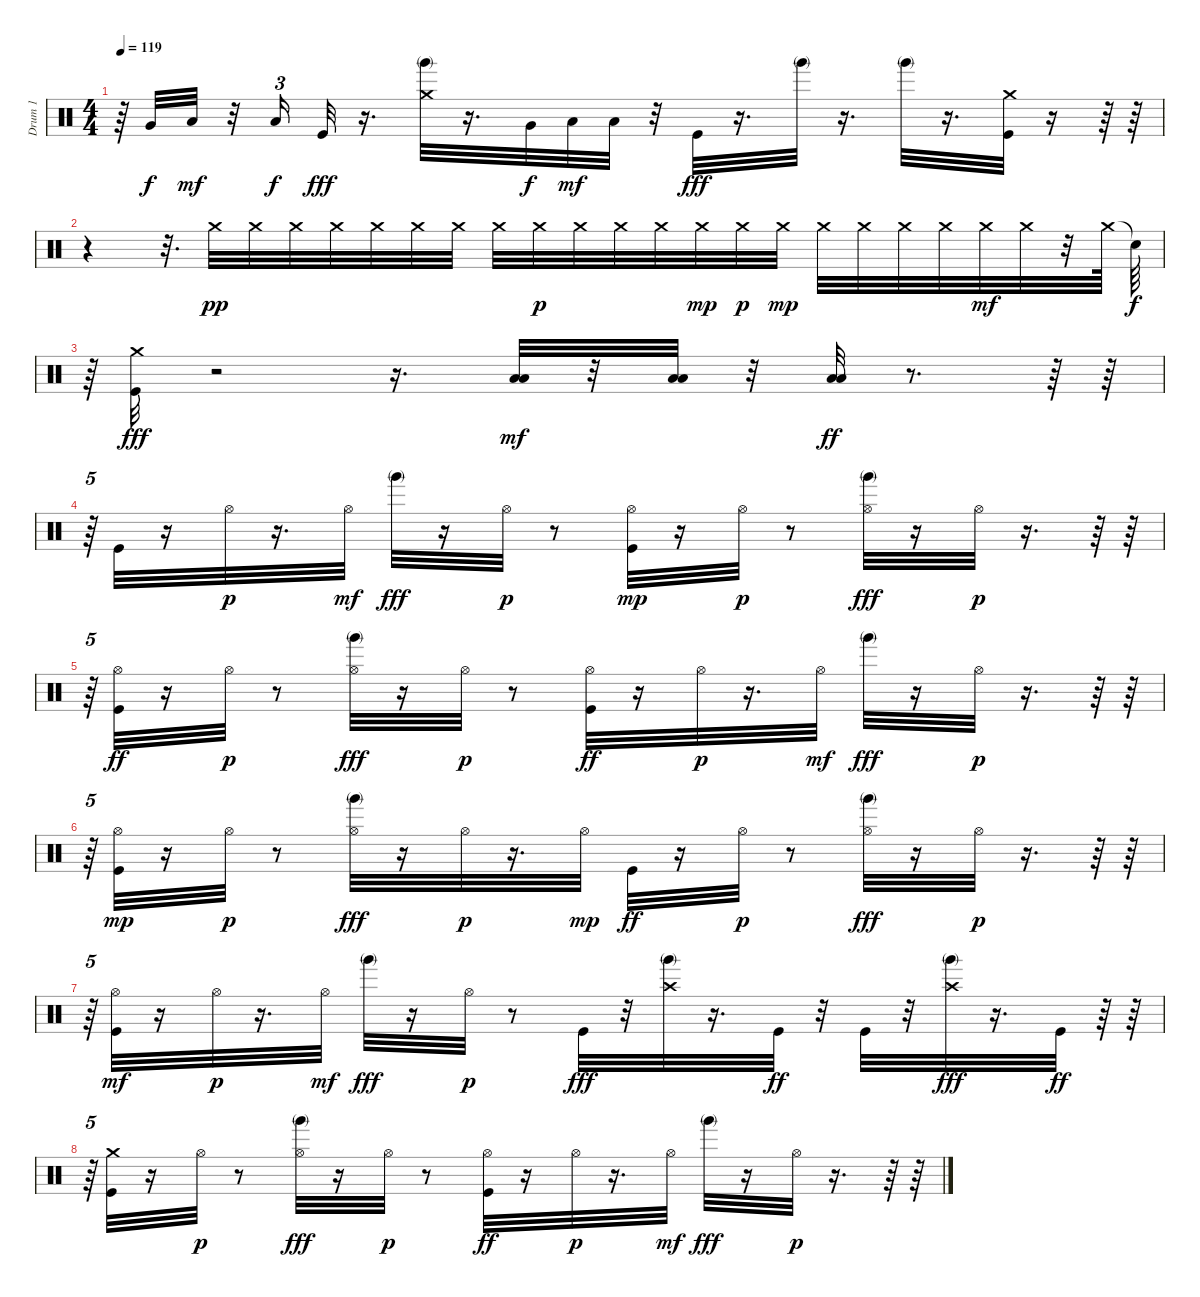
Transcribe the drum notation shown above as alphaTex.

\track ("Drum 1                          " "Drum 1    ") {instrument percussion}
\staff {score}
\articulation defaults
\ts (4 4)
\tempo 119
\clef neutral
\ks c
r.64{dy fff} "Very Low Tom (hit)".32{dy f} "Low Tom (hit)".32{dy mf} r.32 "Low Floor Tom (hit)".16{tu (3 2) dy f} "Kick (hit)".32{dy fff} r.16{d} ("Crash medium (hit)" "Hand (mute) 2").32 r.16{d} "Very Low Tom (hit)".32{dy f} "Low Tom (hit)".32{dy mf} "Low Floor Tom (hit)".32 r.32 "Kick (hit)".32{dy fff} r.16{d} "Hand (mute) 2".32 r.16{d} "Hand (mute) 2".32 r.16{d} ("Crash medium (hit)" "Kick (hit)").32 r.16 r.64 r.64 |
r.4 r.32{d} "Crash medium (hit)".32{dy pp} "Crash medium (hit)".32 "Crash medium (hit)".32 "Crash medium (hit)".32 "Crash medium (hit)".32 "Crash medium (hit)".32 "Crash medium (hit)".32 "Crash medium (hit)".32 "Crash medium (hit)".32{dy p} "Crash medium (hit)".32 "Crash medium (hit)".32 "Crash medium (hit)".32 "Crash medium (hit)".32{dy mp} "Crash medium (hit)".32{dy p} "Crash medium (hit)".32{dy mp} "Crash medium (hit)".32 "Crash medium (hit)".32 "Crash medium (hit)".32 "Crash medium (hit)".32 "Crash medium (hit)".32{dy mf} "Crash medium (hit)".32 r.32 "Crash medium (hit)".64 "Snare (hit)"{t}.64{dy f} |
r.64{tu (5 4)} ("Kick (hit)" "Crash medium (hit)").32{dy fff} r.2 r.16{d} ("Low Floor Tom (hit)" "Low Tom (hit)").32{dy mf} r.32 ("Low Tom (hit)" "Low Floor Tom (hit)").32 r.32 ("Low Floor Tom (hit)" "Low Tom (hit)").32{dy ff} r.8{d} r.64 r.64 |
r.64{tu (5 4)} "Kick (hit)".32 r.16 "Hi-Hat (open)".32{dy p} r.16{d} "Hi-Hat (open)".32{dy mf} "Hand (mute) 2".32{dy fff} r.16 "Hi-Hat (open)".32{dy p} r.8 ("Kick (hit)" "Hi-Hat (open)").32{dy mp} r.16 "Hi-Hat (open)".32{dy p} r.8 ("Hi-Hat (open)" "Hand (mute) 2").32{dy fff} r.16 "Hi-Hat (open)".32{dy p} r.16{d} r.64 r.64 |
r.64{tu (5 4)} ("Hi-Hat (open)" "Kick (hit)").32{dy ff} r.16 "Hi-Hat (open)".32{dy p} r.8 ("Hi-Hat (open)" "Hand (mute) 2").32{dy fff} r.16 "Hi-Hat (open)".32{dy p} r.8 ("Hi-Hat (open)" "Kick (hit)").32{dy ff} r.16 "Hi-Hat (open)".32{dy p} r.16{d} "Hi-Hat (open)".32{dy mf} "Hand (mute) 2".32{dy fff} r.16 "Hi-Hat (open)".32{dy p} r.16{d} r.64 r.64 |
r.64{tu (5 4)} ("Kick (hit)" "Hi-Hat (open)").32{dy mp} r.16 "Hi-Hat (open)".32{dy p} r.8 ("Hi-Hat (open)" "Hand (mute) 2").32{dy fff} r.16 "Hi-Hat (open)".32{dy p} r.16{d} "Hi-Hat (open)".32{dy mp} "Kick (hit)".32{dy ff} r.16 "Hi-Hat (open)".32{dy p} r.8 ("Hi-Hat (open)" "Hand (mute) 2").32{dy fff} r.16 "Hi-Hat (open)".32{dy p} r.16{d} r.64 r.64 |
r.64{tu (5 4)} ("Kick (hit)" "Hi-Hat (open)").32{dy mf} r.16 "Hi-Hat (open)".32{dy p} r.16{d} "Hi-Hat (open)".32{dy mf} "Hand (mute) 2".32{dy fff} r.16 "Hi-Hat (open)".32{dy p} r.8 "Kick (hit)".32{dy fff} r.32 ("Crash high (hit)" "Hand (mute) 2").32 r.16{d} "Kick (hit)".32{dy ff} r.32 "Kick (hit)".32 r.32 ("Crash high (hit)" "Hand (mute) 2").32{dy fff} r.16{d} "Kick (hit)".32{dy ff} r.64 r.64 |
r.64{tu (5 4)} ("Crash medium (hit)" "Kick (hit)").32 r.16 "Hi-Hat (open)".32{dy p} r.8 ("Hi-Hat (open)" "Hand (mute) 2").32{dy fff} r.16 "Hi-Hat (open)".32{dy p} r.8 ("Hi-Hat (open)" "Kick (hit)").32{dy ff} r.16 "Hi-Hat (open)".32{dy p} r.16{d} "Hi-Hat (open)".32{dy mf} "Hand (mute) 2".32{dy fff} r.16 "Hi-Hat (open)".32{dy p} r.16{d} r.64 r.64
